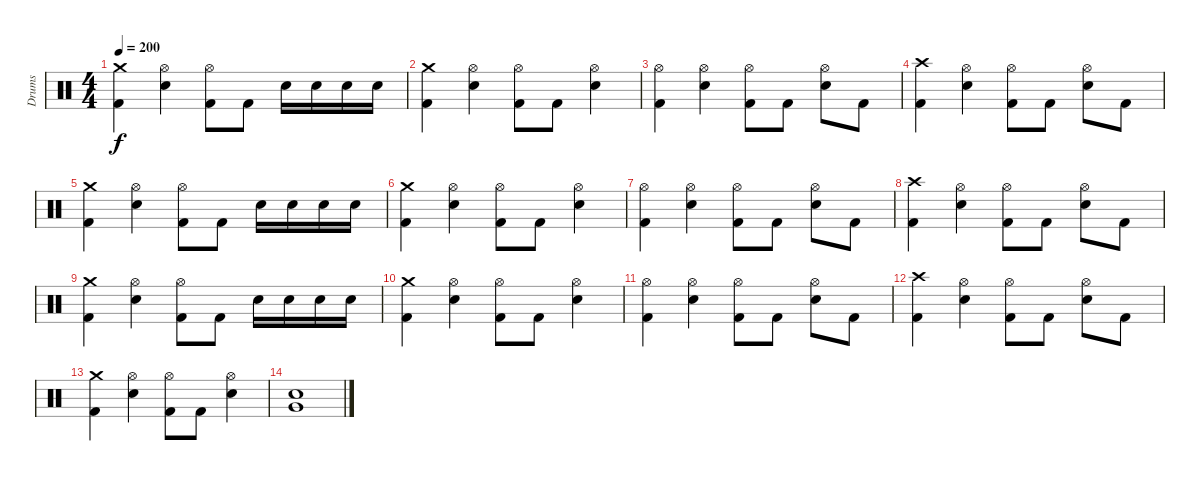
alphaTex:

\track ("Drums" "Drums") {instrument percussion}
\staff {score}
\articulation defaults
\ts (4 4)
\tempo 200
\clef neutral
\ks c
("Crash medium (hit)" "Kick (hit) 2").4{dy f} ("Hi-Hat (open)" "Electric Snare (hit)").4 ("Hi-Hat (open)" "Kick (hit) 2").8 "Kick (hit) 2".8 "Electric Snare (hit)".16 "Electric Snare (hit)".16 "Electric Snare (hit)".16 "Electric Snare (hit)".16 |
("Crash medium (hit)" "Kick (hit) 2").4 ("Hi-Hat (open)" "Electric Snare (hit)").4 ("Hi-Hat (open)" "Kick (hit) 2").8 "Kick (hit) 2".8 ("Hi-Hat (open)" "Electric Snare (hit)").4 |
("Hi-Hat (open)" "Kick (hit) 2").4 ("Hi-Hat (open)" "Electric Snare (hit)").4 ("Hi-Hat (open)" "Kick (hit) 2").8 "Kick (hit) 2".8 ("Hi-Hat (open)" "Electric Snare (hit)").8 "Kick (hit) 2".8 |
("Crash high (hit)" "Kick (hit) 2").4 ("Hi-Hat (open)" "Electric Snare (hit)").4 ("Hi-Hat (open)" "Kick (hit) 2").8 "Kick (hit) 2".8 ("Hi-Hat (open)" "Electric Snare (hit)").8 "Kick (hit) 2".8 |
("Crash medium (hit)" "Kick (hit) 2").4 ("Hi-Hat (open)" "Electric Snare (hit)").4 ("Hi-Hat (open)" "Kick (hit) 2").8 "Kick (hit) 2".8 "Electric Snare (hit)".16 "Electric Snare (hit)".16 "Electric Snare (hit)".16 "Electric Snare (hit)".16 |
("Crash medium (hit)" "Kick (hit) 2").4 ("Hi-Hat (open)" "Electric Snare (hit)").4 ("Hi-Hat (open)" "Kick (hit) 2").8 "Kick (hit) 2".8 ("Hi-Hat (open)" "Electric Snare (hit)").4 |
("Hi-Hat (open)" "Kick (hit) 2").4 ("Hi-Hat (open)" "Electric Snare (hit)").4 ("Hi-Hat (open)" "Kick (hit) 2").8 "Kick (hit) 2".8 ("Hi-Hat (open)" "Electric Snare (hit)").8 "Kick (hit) 2".8 |
("Crash high (hit)" "Kick (hit) 2").4 ("Hi-Hat (open)" "Electric Snare (hit)").4 ("Hi-Hat (open)" "Kick (hit) 2").8 "Kick (hit) 2".8 ("Hi-Hat (open)" "Electric Snare (hit)").8 "Kick (hit) 2".8 |
("Crash medium (hit)" "Kick (hit) 2").4 ("Hi-Hat (open)" "Electric Snare (hit)").4 ("Hi-Hat (open)" "Kick (hit) 2").8 "Kick (hit) 2".8 "Electric Snare (hit)".16 "Electric Snare (hit)".16 "Electric Snare (hit)".16 "Electric Snare (hit)".16 |
("Crash medium (hit)" "Kick (hit) 2").4 ("Hi-Hat (open)" "Electric Snare (hit)").4 ("Hi-Hat (open)" "Kick (hit) 2").8 "Kick (hit) 2".8 ("Hi-Hat (open)" "Electric Snare (hit)").4 |
("Hi-Hat (open)" "Kick (hit) 2").4 ("Hi-Hat (open)" "Electric Snare (hit)").4 ("Hi-Hat (open)" "Kick (hit) 2").8 "Kick (hit) 2".8 ("Hi-Hat (open)" "Electric Snare (hit)").8 "Kick (hit) 2".8 |
("Crash high (hit)" "Kick (hit) 2").4 ("Hi-Hat (open)" "Electric Snare (hit)").4 ("Hi-Hat (open)" "Kick (hit) 2").8 "Kick (hit) 2".8 ("Hi-Hat (open)" "Electric Snare (hit)").8 "Kick (hit) 2".8 |
("Crash medium (hit)" "Kick (hit) 2").4 ("Hi-Hat (open)" "Electric Snare (hit)").4 ("Hi-Hat (open)" "Kick (hit) 2").8 "Kick (hit) 2".8 ("Hi-Hat (open)" "Electric Snare (hit)").4 |
("Very Low Tom (hit)" "Electric Snare (hit)").1
